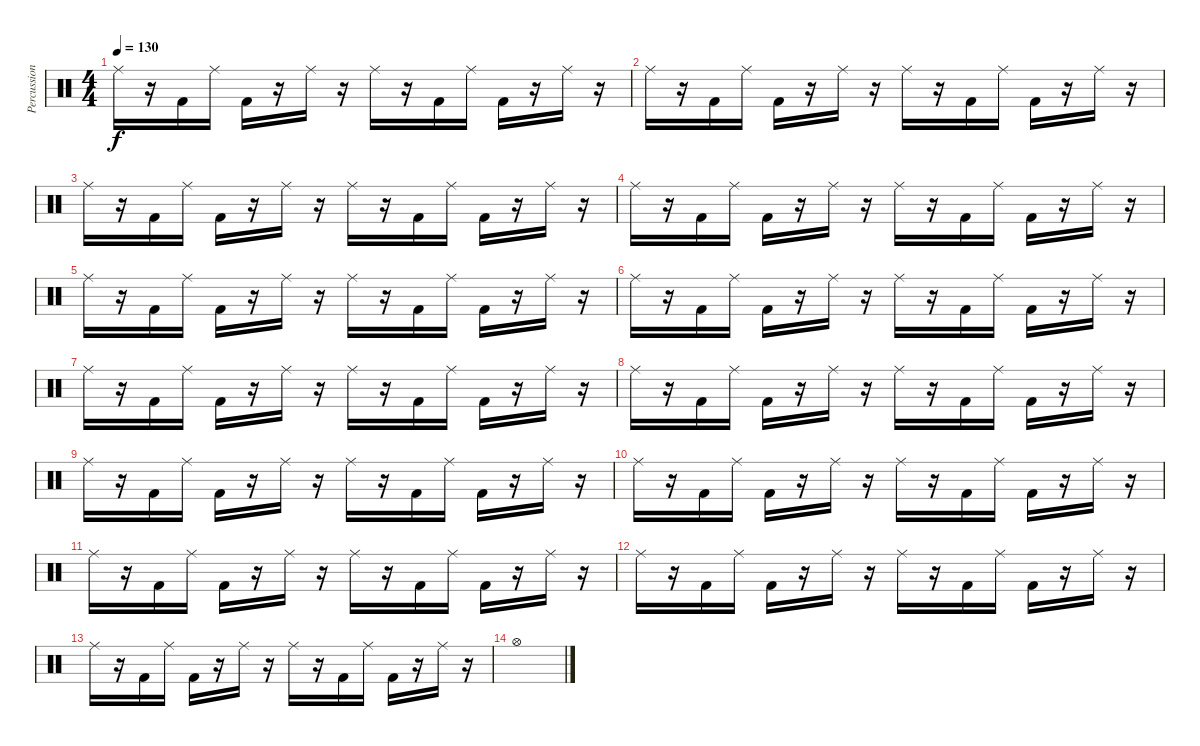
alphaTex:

\track ("Percussions" "Percussion") {instrument percussion}
\staff {score}
\articulation defaults
\ts (4 4)
\tempo 130
\clef neutral
\ks c "Ride (middle)".16{dy f}
r.16 "Kick (hit) 2".16 "Ride (middle)".16 "Kick (hit) 2".16 r.16 "Ride (middle)".16 r.16 "Ride (middle)".16 r.16 "Kick (hit) 2".16 "Ride (middle)".16 "Kick (hit) 2".16 r.16 "Ride (middle)".16 r.16 |
"Ride (middle)".16 r.16 "Kick (hit) 2".16 "Ride (middle)".16 "Kick (hit) 2".16 r.16 "Ride (middle)".16 r.16 "Ride (middle)".16 r.16 "Kick (hit) 2".16 "Ride (middle)".16 "Kick (hit) 2".16 r.16 "Ride (middle)".16 r.16 |
"Ride (middle)".16 r.16 "Kick (hit) 2".16 "Ride (middle)".16 "Kick (hit) 2".16 r.16 "Ride (middle)".16 r.16 "Ride (middle)".16 r.16 "Kick (hit) 2".16 "Ride (middle)".16 "Kick (hit) 2".16 r.16 "Ride (middle)".16 r.16 |
"Ride (middle)".16 r.16 "Kick (hit) 2".16 "Ride (middle)".16 "Kick (hit) 2".16 r.16 "Ride (middle)".16 r.16 "Ride (middle)".16 r.16 "Kick (hit) 2".16 "Ride (middle)".16 "Kick (hit) 2".16 r.16 "Ride (middle)".16 r.16 |
"Ride (middle)".16 r.16 "Kick (hit) 2".16 "Ride (middle)".16 "Kick (hit) 2".16 r.16 "Ride (middle)".16 r.16 "Ride (middle)".16 r.16 "Kick (hit) 2".16 "Ride (middle)".16 "Kick (hit) 2".16 r.16 "Ride (middle)".16 r.16 |
"Ride (middle)".16 r.16 "Kick (hit) 2".16 "Ride (middle)".16 "Kick (hit) 2".16 r.16 "Ride (middle)".16 r.16 "Ride (middle)".16 r.16 "Kick (hit) 2".16 "Ride (middle)".16 "Kick (hit) 2".16 r.16 "Ride (middle)".16 r.16 |
"Ride (middle)".16 r.16 "Kick (hit) 2".16 "Ride (middle)".16 "Kick (hit) 2".16 r.16 "Ride (middle)".16 r.16 "Ride (middle)".16 r.16 "Kick (hit) 2".16 "Ride (middle)".16 "Kick (hit) 2".16 r.16 "Ride (middle)".16 r.16 |
"Ride (middle)".16 r.16 "Kick (hit) 2".16 "Ride (middle)".16 "Kick (hit) 2".16 r.16 "Ride (middle)".16 r.16 "Ride (middle)".16 r.16 "Kick (hit) 2".16 "Ride (middle)".16 "Kick (hit) 2".16 r.16 "Ride (middle)".16 r.16 |
"Ride (middle)".16 r.16 "Kick (hit) 2".16 "Ride (middle)".16 "Kick (hit) 2".16 r.16 "Ride (middle)".16 r.16 "Ride (middle)".16 r.16 "Kick (hit) 2".16 "Ride (middle)".16 "Kick (hit) 2".16 r.16 "Ride (middle)".16 r.16 |
"Ride (middle)".16 r.16 "Kick (hit) 2".16 "Ride (middle)".16 "Kick (hit) 2".16 r.16 "Ride (middle)".16 r.16 "Ride (middle)".16 r.16 "Kick (hit) 2".16 "Ride (middle)".16 "Kick (hit) 2".16 r.16 "Ride (middle)".16 r.16 |
"Ride (middle)".16 r.16 "Kick (hit) 2".16 "Ride (middle)".16 "Kick (hit) 2".16 r.16 "Ride (middle)".16 r.16 "Ride (middle)".16 r.16 "Kick (hit) 2".16 "Ride (middle)".16 "Kick (hit) 2".16 r.16 "Ride (middle)".16 r.16 |
"Ride (middle)".16 r.16 "Kick (hit) 2".16 "Ride (middle)".16 "Kick (hit) 2".16 r.16 "Ride (middle)".16 r.16 "Ride (middle)".16 r.16 "Kick (hit) 2".16 "Ride (middle)".16 "Kick (hit) 2".16 r.16 "Ride (middle)".16 r.16 |
"Ride (middle)".16 r.16 "Kick (hit) 2".16 "Ride (middle)".16 "Kick (hit) 2".16 r.16 "Ride (middle)".16 r.16 "Ride (middle)".16 r.16 "Kick (hit) 2".16 "Ride (middle)".16 "Kick (hit) 2".16 r.16 "Ride (middle)".16 r.16 |
"Hi-Hat (open)".1
